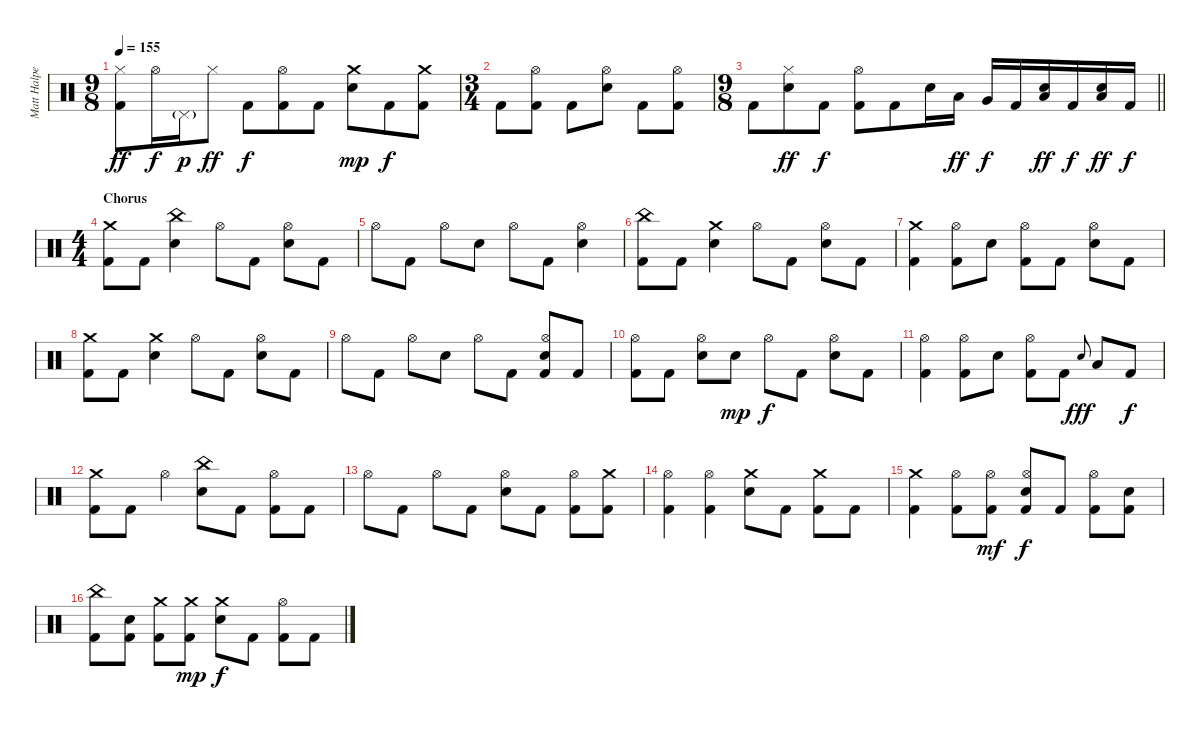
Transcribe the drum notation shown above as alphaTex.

\track ("Matt Halpern - Drums" "Matt Halpe") {instrument percussion}
\staff {score}
\articulation defaults
\ts (9 8)
\tempo 155
\clef neutral
\ks c
("Hi-Hat (closed)" "Kick (hit) 2").8{dy ff} "Hi-Hat (open)".16{dy f} "Pedal Hi-Hat (hit)"{g}.16{dy p} "Hi-Hat (closed)".8{dy ff} "Kick (hit) 2".8{dy f} ("Hi-Hat (open)" "Kick (hit) 2").8 "Kick (hit) 2".8 ("Crash medium (hit)" "Electric Snare (hit)").8{dy mp} "Kick (hit) 2".8{dy f} ("Crash medium (hit)" "Kick (hit) 2").8 |
\ts (3 4)
"Kick (hit) 2".8 ("Hi-Hat (open)" "Kick (hit) 2").8 "Kick (hit) 2".8 ("Hi-Hat (open)" "Electric Snare (hit)").8 "Kick (hit) 2".8 ("Hi-Hat (open)" "Kick (hit) 2").8 |
\ts (9 8)
\barLineRight lightlight "Kick (hit) 2".8
("Hi-Hat (closed)" "Electric Snare (hit)").8{dy ff} "Kick (hit) 2".8{dy f} ("Hi-Hat (open)" "Kick (hit) 2").8 "Kick (hit) 2".8 "Electric Snare (hit)".16 "Low Tom (hit)".16{dy ff} "Very Low Tom (hit)".16{dy f} "Kick (hit) 2".16 ("Electric Snare (hit)" "Low Floor Tom (hit)").16{dy ff} "Kick (hit) 2".16{dy f} ("Electric Snare (hit)" "Low Floor Tom (hit)").16{dy ff} "Kick (hit) 2".16{dy f} |
\ts (4 4)
\section ("" "Chorus")
("Crash medium (hit)" "Kick (hit) 2").8 "Kick (hit) 2".8 ("China (hit)" "Electric Snare (hit)").4 "Hi-Hat (open)".8 "Kick (hit) 2".8 ("Hi-Hat (open)" "Electric Snare (hit)").8 "Kick (hit) 2".8 |
"Hi-Hat (open)".8 "Kick (hit) 2".8 "Hi-Hat (open)".8 "Electric Snare (hit)".8 "Hi-Hat (open)".8 "Kick (hit) 2".8 ("Hi-Hat (open)" "Electric Snare (hit)").4 |
("China (hit)" "Kick (hit) 2").8 "Kick (hit) 2".8 ("Crash medium (hit)" "Electric Snare (hit)").4 "Hi-Hat (open)".8 "Kick (hit) 2".8 ("Hi-Hat (open)" "Electric Snare (hit)").8 "Kick (hit) 2".8 |
("Crash medium (hit)" "Kick (hit) 2").4 ("Hi-Hat (open)" "Kick (hit) 2").8 "Electric Snare (hit)".8 ("Hi-Hat (open)" "Kick (hit) 2").8 "Kick (hit) 2".8 ("Hi-Hat (open)" "Electric Snare (hit)").8 "Kick (hit) 2".8 |
("Crash medium (hit)" "Kick (hit) 2").8 "Kick (hit) 2".8 ("Crash medium (hit)" "Electric Snare (hit)").4 "Hi-Hat (open)".8 "Kick (hit) 2".8 ("Hi-Hat (open)" "Electric Snare (hit)").8 "Kick (hit) 2".8 |
"Hi-Hat (open)".8 "Kick (hit) 2".8 "Hi-Hat (open)".8 "Electric Snare (hit)".8 "Hi-Hat (open)".8 "Kick (hit) 2".8 ("Hi-Hat (open)" "Electric Snare (hit)" "Kick (hit) 2").8 "Kick (hit) 2".8 |
("Hi-Hat (open)" "Kick (hit) 2").8 "Kick (hit) 2".8 ("Hi-Hat (open)" "Electric Snare (hit)").8 "Electric Snare (hit)".8{dy mp} "Hi-Hat (open)".8{dy f} "Kick (hit) 2".8 ("Hi-Hat (open)" "Electric Snare (hit)").8 "Kick (hit) 2".8 |
("Hi-Hat (open)" "Kick (hit) 2").4 ("Hi-Hat (open)" "Kick (hit) 2").8 "Electric Snare (hit)".8 ("Hi-Hat (open)" "Kick (hit) 2").8 "Kick (hit) 2".8 "Electric Snare (hit)".8{gr onbeat dy fff} "Low Floor Tom (hit)".8 "Kick (hit) 2".8{dy f} |
("Crash medium (hit)" "Kick (hit) 2").8 "Kick (hit) 2".8 "Hi-Hat (open)".4 ("China (hit)" "Electric Snare (hit)").8 "Kick (hit) 2".8 ("Hi-Hat (open)" "Kick (hit) 2").8 "Kick (hit) 2".8 |
"Hi-Hat (open)".8 "Kick (hit) 2".8 "Hi-Hat (open)".8 "Kick (hit) 2".8 ("Hi-Hat (open)" "Electric Snare (hit)").8 "Kick (hit) 2".8 ("Hi-Hat (open)" "Kick (hit) 2").8 ("Crash medium (hit)" "Kick (hit) 2").8 |
("Hi-Hat (open)" "Kick (hit) 2").4 ("Hi-Hat (open)" "Kick (hit) 2").4 ("Crash medium (hit)" "Electric Snare (hit)").8 "Kick (hit) 2".8 ("Crash medium (hit)" "Kick (hit) 2").8 "Kick (hit) 2".8 |
("Crash medium (hit)" "Kick (hit) 2").4 ("Hi-Hat (open)" "Kick (hit) 2").8 ("Hi-Hat (open)" "Kick (hit) 2").8{dy mf} ("Hi-Hat (open)" "Electric Snare (hit)" "Kick (hit) 2").8{dy f} "Kick (hit) 2".8 ("Hi-Hat (open)" "Kick (hit) 2").8 ("Electric Snare (hit)" "Kick (hit) 2").8 |
("China (hit)" "Kick (hit) 2").8 ("Electric Snare (hit)" "Kick (hit) 2").8 ("Crash medium (hit)" "Kick (hit) 2").8 ("Crash medium (hit)" "Kick (hit) 2").8{dy mp} ("Crash medium (hit)" "Electric Snare (hit)").8{dy f} "Kick (hit) 2".8 ("Hi-Hat (open)" "Kick (hit) 2").8 "Kick (hit) 2".8
